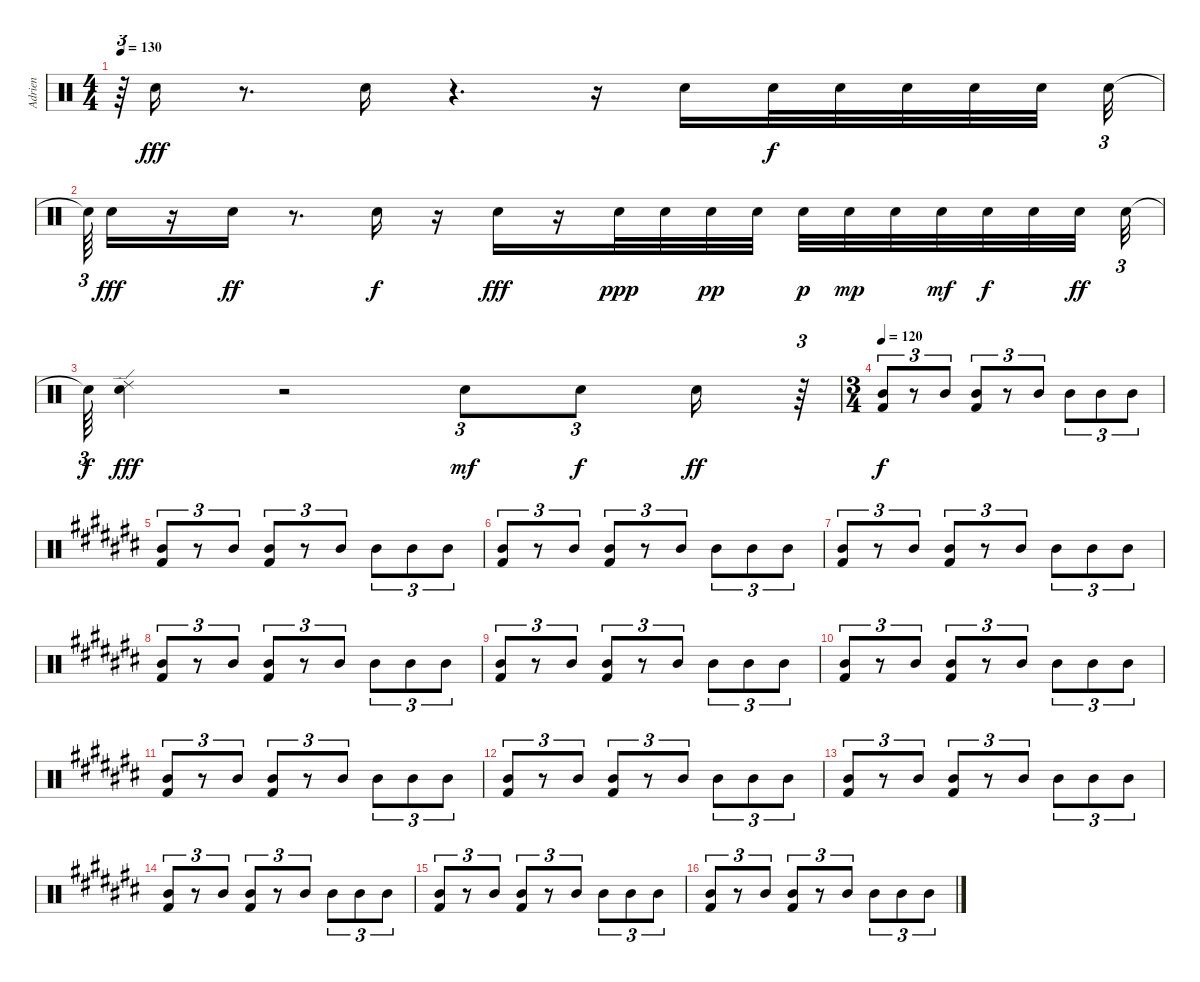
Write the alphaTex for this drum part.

\track ("Adrien" "Adrien") {instrument percussion}
\staff {score}
\articulation defaults
\ts (4 4)
\tempo 130
\clef neutral
\ks c
r.64{tu (3 2) dy ff} "Snare (hit) 2".16{dy fff} r.8{d} "Snare (hit) 2".16 r.4{d} r.16 "Snare (hit) 2".16 "Snare (hit) 2".32{dy f} "Snare (hit) 2".32 "Snare (hit) 2".32 "Snare (hit) 2".32 "Snare (hit) 2".32{beam splitsecondary} "Snare (hit) 2".32{tu (3 2)} |
"Snare (hit)"{t}.64{tu (3 2)} "Snare (hit) 2".16{dy fff} r.16 "Snare (hit) 2".16{dy ff} r.8{d} "Snare (hit) 2".16{dy f} r.16 "Snare (hit) 2".16{dy fff} r.16 "Snare (hit) 2".32{dy ppp} "Snare (hit) 2".32 "Snare (hit) 2".32{dy pp} "Snare (hit) 2".32 "Snare (hit) 2".32{dy p} "Snare (hit) 2".32{dy mp} "Snare (hit) 2".32 "Snare (hit) 2".32{dy mf} "Snare (hit) 2".32{dy f} "Snare (hit) 2".32 "Snare (hit) 2".32{dy ff beam splitsecondary} "Snare (hit) 2".32{tu (3 2)} |
"Snare (hit)"{t}.64{tu (3 2) dy f} ("Snare (hit) 2" "Ride (edge) 2").4{dy fff} r.2 "Snare (hit) 2".8{tu (3 2) dy mf} "Snare (hit) 2".8{tu (3 2) dy f} "Snare (hit) 2".16{dy ff} r.64{tu (3 2)} |
\ts (3 4)
\tempo 120
("Mid Tom (hit)" "Kick (hit) 2").8{tu (3 2) dy f} r.8{tu (3 2)} "Mid Tom (hit)".8{tu (3 2)} ("Mid Tom (hit)" "Kick (hit) 2").8{tu (3 2)} r.8{tu (3 2)} "Mid Tom (hit)".8{tu (3 2)} "Mid Tom (hit)".8{tu (3 2)} "Mid Tom (hit)".8{tu (3 2)} "Mid Tom (hit)".8{tu (3 2)} |
\ks c#
("Mid Tom (hit)" "Kick (hit) 2").8{tu (3 2)} r.8{tu (3 2)} "Mid Tom (hit)".8{tu (3 2)} ("Mid Tom (hit)" "Kick (hit) 2").8{tu (3 2)} r.8{tu (3 2)} "Mid Tom (hit)".8{tu (3 2)} "Mid Tom (hit)".8{tu (3 2)} "Mid Tom (hit)".8{tu (3 2)} "Mid Tom (hit)".8{tu (3 2)} |
("Mid Tom (hit)" "Kick (hit) 2").8{tu (3 2)} r.8{tu (3 2)} "Mid Tom (hit)".8{tu (3 2)} ("Mid Tom (hit)" "Kick (hit) 2").8{tu (3 2)} r.8{tu (3 2)} "Mid Tom (hit)".8{tu (3 2)} "Mid Tom (hit)".8{tu (3 2)} "Mid Tom (hit)".8{tu (3 2)} "Mid Tom (hit)".8{tu (3 2)} |
("Mid Tom (hit)" "Kick (hit) 2").8{tu (3 2)} r.8{tu (3 2)} "Mid Tom (hit)".8{tu (3 2)} ("Mid Tom (hit)" "Kick (hit) 2").8{tu (3 2)} r.8{tu (3 2)} "Mid Tom (hit)".8{tu (3 2)} "Mid Tom (hit)".8{tu (3 2)} "Mid Tom (hit)".8{tu (3 2)} "Mid Tom (hit)".8{tu (3 2)} |
("Mid Tom (hit)" "Kick (hit) 2").8{tu (3 2)} r.8{tu (3 2)} "Mid Tom (hit)".8{tu (3 2)} ("Mid Tom (hit)" "Kick (hit) 2").8{tu (3 2)} r.8{tu (3 2)} "Mid Tom (hit)".8{tu (3 2)} "Mid Tom (hit)".8{tu (3 2)} "Mid Tom (hit)".8{tu (3 2)} "Mid Tom (hit)".8{tu (3 2)} |
("Mid Tom (hit)" "Kick (hit) 2").8{tu (3 2)} r.8{tu (3 2)} "Mid Tom (hit)".8{tu (3 2)} ("Mid Tom (hit)" "Kick (hit) 2").8{tu (3 2)} r.8{tu (3 2)} "Mid Tom (hit)".8{tu (3 2)} "Mid Tom (hit)".8{tu (3 2)} "Mid Tom (hit)".8{tu (3 2)} "Mid Tom (hit)".8{tu (3 2)} |
("Mid Tom (hit)" "Kick (hit) 2").8{tu (3 2)} r.8{tu (3 2)} "Mid Tom (hit)".8{tu (3 2)} ("Mid Tom (hit)" "Kick (hit) 2").8{tu (3 2)} r.8{tu (3 2)} "Mid Tom (hit)".8{tu (3 2)} "Mid Tom (hit)".8{tu (3 2)} "Mid Tom (hit)".8{tu (3 2)} "Mid Tom (hit)".8{tu (3 2)} |
("Mid Tom (hit)" "Kick (hit) 2").8{tu (3 2)} r.8{tu (3 2)} "Mid Tom (hit)".8{tu (3 2)} ("Mid Tom (hit)" "Kick (hit) 2").8{tu (3 2)} r.8{tu (3 2)} "Mid Tom (hit)".8{tu (3 2)} "Mid Tom (hit)".8{tu (3 2)} "Mid Tom (hit)".8{tu (3 2)} "Mid Tom (hit)".8{tu (3 2)} |
("Mid Tom (hit)" "Kick (hit) 2").8{tu (3 2)} r.8{tu (3 2)} "Mid Tom (hit)".8{tu (3 2)} ("Mid Tom (hit)" "Kick (hit) 2").8{tu (3 2)} r.8{tu (3 2)} "Mid Tom (hit)".8{tu (3 2)} "Mid Tom (hit)".8{tu (3 2)} "Mid Tom (hit)".8{tu (3 2)} "Mid Tom (hit)".8{tu (3 2)} |
("Mid Tom (hit)" "Kick (hit) 2").8{tu (3 2)} r.8{tu (3 2)} "Mid Tom (hit)".8{tu (3 2)} ("Mid Tom (hit)" "Kick (hit) 2").8{tu (3 2)} r.8{tu (3 2)} "Mid Tom (hit)".8{tu (3 2)} "Mid Tom (hit)".8{tu (3 2)} "Mid Tom (hit)".8{tu (3 2)} "Mid Tom (hit)".8{tu (3 2)} |
("Mid Tom (hit)" "Kick (hit) 2").8{tu (3 2)} r.8{tu (3 2)} "Mid Tom (hit)".8{tu (3 2)} ("Mid Tom (hit)" "Kick (hit) 2").8{tu (3 2)} r.8{tu (3 2)} "Mid Tom (hit)".8{tu (3 2)} "Mid Tom (hit)".8{tu (3 2)} "Mid Tom (hit)".8{tu (3 2)} "Mid Tom (hit)".8{tu (3 2)} |
("Mid Tom (hit)" "Kick (hit) 2").8{tu (3 2)} r.8{tu (3 2)} "Mid Tom (hit)".8{tu (3 2)} ("Mid Tom (hit)" "Kick (hit) 2").8{tu (3 2)} r.8{tu (3 2)} "Mid Tom (hit)".8{tu (3 2)} "Mid Tom (hit)".8{tu (3 2)} "Mid Tom (hit)".8{tu (3 2)} "Mid Tom (hit)".8{tu (3 2)} |
("Mid Tom (hit)" "Kick (hit) 2").8{tu (3 2)} r.8{tu (3 2)} "Mid Tom (hit)".8{tu (3 2)} ("Mid Tom (hit)" "Kick (hit) 2").8{tu (3 2)} r.8{tu (3 2)} "Mid Tom (hit)".8{tu (3 2)} "Mid Tom (hit)".8{tu (3 2)} "Mid Tom (hit)".8{tu (3 2)} "Mid Tom (hit)".8{tu (3 2)}
